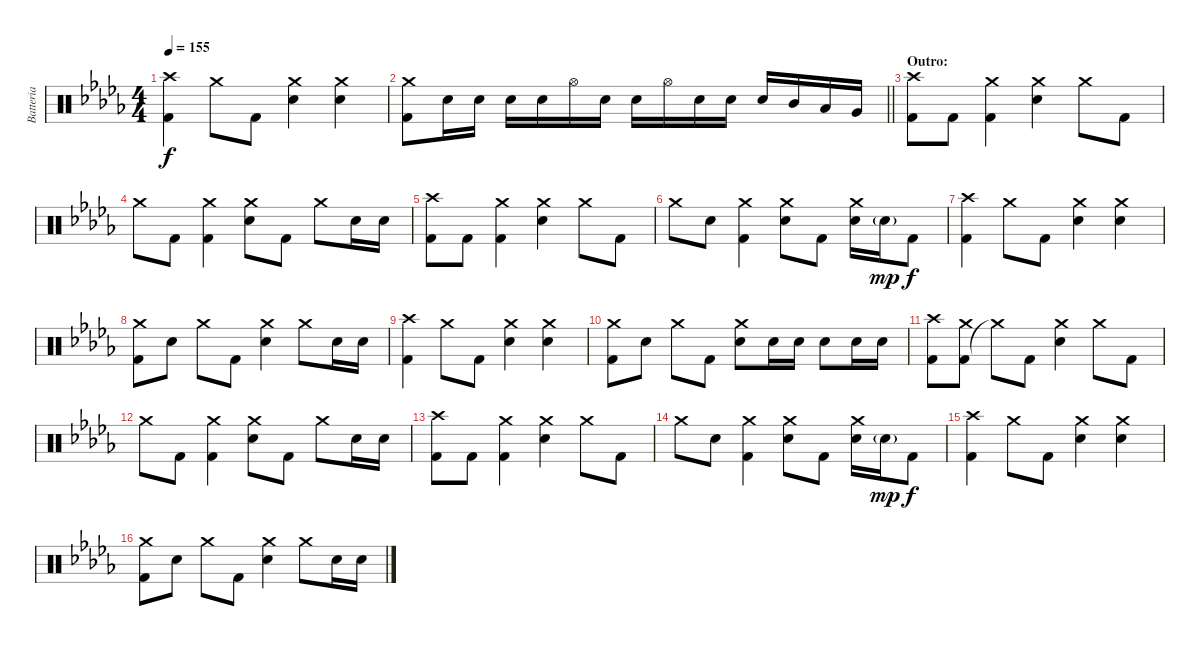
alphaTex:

\track ("Batteria" "Batteria") {instrument percussion}
\staff {score}
\articulation defaults
\ts (4 4)
\tempo 155
\clef neutral
\ks bbminor
("Kick (hit) 2" "Crash high (hit)").4{dy f} "Crash medium (hit)".8 "Kick (hit) 2".8 ("Snare (hit) 2" "Crash medium (hit)").4 ("Snare (hit) 2" "Crash medium (hit)").4 |
\barLineRight lightlight
("Kick (hit) 2" "Crash medium (hit)").8 "Snare (hit) 2".16 "Snare (hit) 2".16 "Snare (hit) 2".16 "Snare (hit) 2".16 "Hi-Hat (open)".16 "Snare (hit) 2".16 "Snare (hit) 2".16 "Hi-Hat (open)".16 "Snare (hit) 2".16 "Snare (hit) 2".16 "Snare (hit) 2".16 "Mid Tom (hit)".16 "Low Tom (hit)".16 "Very Low Tom (hit)".16 |
\section ("" "Outro:")
("Kick (hit) 2" "Crash high (hit)").8 "Kick (hit) 2".8 ("Kick (hit) 2" "Crash medium (hit)").4 ("Snare (hit) 2" "Crash medium (hit)").4 "Crash medium (hit)".8 "Kick (hit) 2".8 |
"Crash medium (hit)".8 "Kick (hit) 2".8 ("Kick (hit) 2" "Crash medium (hit)").4 ("Snare (hit) 2" "Crash medium (hit)").8 "Kick (hit) 2".8 "Crash medium (hit)".8 "Snare (hit) 2".16 "Snare (hit) 2".16 |
("Kick (hit) 2" "Crash high (hit)").8 "Kick (hit) 2".8 ("Kick (hit) 2" "Crash medium (hit)").4 ("Snare (hit) 2" "Crash medium (hit)").4 "Crash medium (hit)".8 "Kick (hit) 2".8 |
"Crash medium (hit)".8 "Snare (hit) 2".8 ("Kick (hit) 2" "Crash medium (hit)").4 ("Snare (hit) 2" "Crash medium (hit)").8 "Kick (hit) 2".8 ("Snare (hit) 2" "Crash medium (hit)").16 "Snare (hit) 2"{g}.16{dy mp} "Kick (hit) 2".8{dy f} |
("Kick (hit) 2" "Crash high (hit)").4 "Crash medium (hit)".8 "Kick (hit) 2".8 ("Snare (hit) 2" "Crash medium (hit)").4 ("Snare (hit) 2" "Crash medium (hit)").4 |
("Kick (hit) 2" "Crash medium (hit)").8 "Snare (hit) 2".8 "Crash medium (hit)".8 "Kick (hit) 2".8 ("Snare (hit) 2" "Crash medium (hit)").4 "Crash medium (hit)".8 "Snare (hit) 2".16 "Snare (hit) 2".16 |
("Kick (hit) 2" "Crash high (hit)").4 "Crash medium (hit)".8 "Kick (hit) 2".8 ("Snare (hit) 2" "Crash medium (hit)").4 ("Snare (hit) 2" "Crash medium (hit)").4 |
("Kick (hit) 2" "Crash medium (hit)").8 "Snare (hit) 2".8 "Crash medium (hit)".8 "Kick (hit) 2".8 ("Snare (hit) 2" "Crash medium (hit)").8 "Snare (hit) 2".16 "Snare (hit) 2".16 "Snare (hit) 2".8 "Snare (hit) 2".16 "Snare (hit) 2".16 |
("Kick (hit) 2" "Crash high (hit)").8 ("Kick (hit) 2" "Crash medium (hit)").8 "Crash medium (hit)"{t}.8 "Kick (hit) 2".8 ("Snare (hit) 2" "Crash medium (hit)").4 "Crash medium (hit)".8 "Kick (hit) 2".8 |
"Crash medium (hit)".8 "Kick (hit) 2".8 ("Kick (hit) 2" "Crash medium (hit)").4 ("Snare (hit) 2" "Crash medium (hit)").8 "Kick (hit) 2".8 "Crash medium (hit)".8 "Snare (hit) 2".16 "Snare (hit) 2".16 |
("Kick (hit) 2" "Crash high (hit)").8 "Kick (hit) 2".8 ("Kick (hit) 2" "Crash medium (hit)").4 ("Snare (hit) 2" "Crash medium (hit)").4 "Crash medium (hit)".8 "Kick (hit) 2".8 |
"Crash medium (hit)".8 "Snare (hit) 2".8 ("Kick (hit) 2" "Crash medium (hit)").4 ("Snare (hit) 2" "Crash medium (hit)").8 "Kick (hit) 2".8 ("Snare (hit) 2" "Crash medium (hit)").16 "Snare (hit) 2"{g}.16{dy mp} "Kick (hit) 2".8{dy f} |
("Kick (hit) 2" "Crash high (hit)").4 "Crash medium (hit)".8 "Kick (hit) 2".8 ("Snare (hit) 2" "Crash medium (hit)").4 ("Snare (hit) 2" "Crash medium (hit)").4 |
("Kick (hit) 2" "Crash medium (hit)").8 "Snare (hit) 2".8 "Crash medium (hit)".8 "Kick (hit) 2".8 ("Snare (hit) 2" "Crash medium (hit)").4 "Crash medium (hit)".8 "Snare (hit) 2".16 "Snare (hit) 2".16
